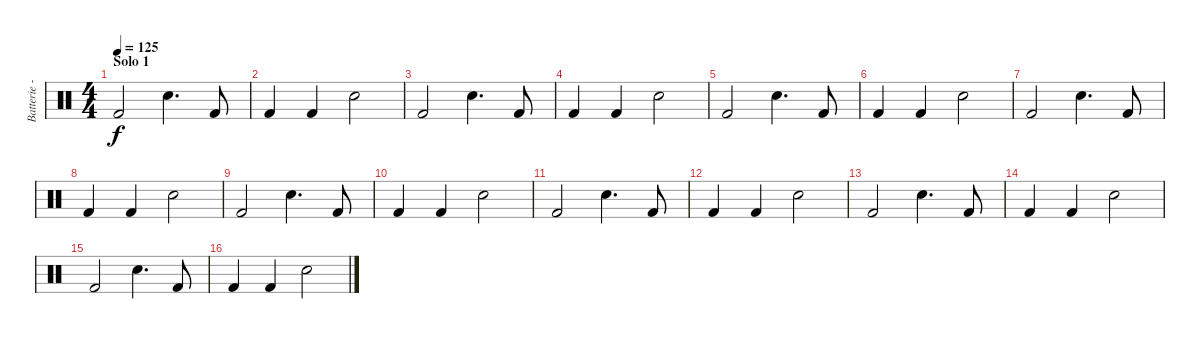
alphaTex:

\track ("Batterie - Shane Gaalaas" "Batterie -") {instrument percussion}
\staff {score}
\articulation defaults
\ts (4 4)
\section ("" "Solo 1")
\tempo 125
\clef neutral
\ks c "Kick (hit) 2".2{dy f} "Electric Snare (hit)".4{d} "Kick (hit) 2".8
|
"Kick (hit) 2".4 "Kick (hit) 2".4 "Electric Snare (hit)".2 |
"Kick (hit) 2".2 "Electric Snare (hit)".4{d} "Kick (hit) 2".8 |
"Kick (hit) 2".4 "Kick (hit) 2".4 "Electric Snare (hit)".2 |
"Kick (hit) 2".2 "Electric Snare (hit)".4{d} "Kick (hit) 2".8 |
"Kick (hit) 2".4 "Kick (hit) 2".4 "Electric Snare (hit)".2 |
"Kick (hit) 2".2 "Electric Snare (hit)".4{d} "Kick (hit) 2".8 |
"Kick (hit) 2".4 "Kick (hit) 2".4 "Electric Snare (hit)".2 |
"Kick (hit) 2".2 "Electric Snare (hit)".4{d} "Kick (hit) 2".8 |
"Kick (hit) 2".4 "Kick (hit) 2".4 "Electric Snare (hit)".2 |
"Kick (hit) 2".2 "Electric Snare (hit)".4{d} "Kick (hit) 2".8 |
"Kick (hit) 2".4 "Kick (hit) 2".4 "Electric Snare (hit)".2 |
"Kick (hit) 2".2 "Electric Snare (hit)".4{d} "Kick (hit) 2".8 |
"Kick (hit) 2".4 "Kick (hit) 2".4 "Electric Snare (hit)".2 |
"Kick (hit) 2".2 "Electric Snare (hit)".4{d} "Kick (hit) 2".8 |
"Kick (hit) 2".4 "Kick (hit) 2".4 "Electric Snare (hit)".2
